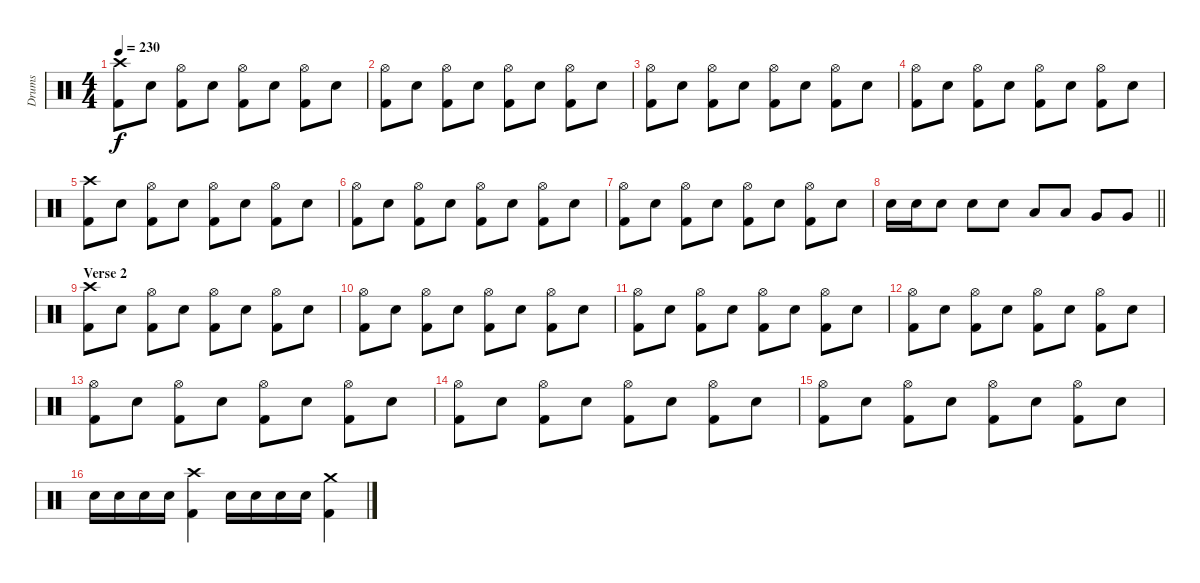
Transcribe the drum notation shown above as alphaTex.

\track ("Drums" "Drums") {instrument percussion}
\staff {score}
\articulation defaults
\ts (4 4)
\tempo 230
\clef neutral
\ks c
("Crash high (hit)" "Kick (hit) 2").8{dy f} "Electric Snare (hit)".8 ("Hi-Hat (open)" "Kick (hit) 2").8 "Electric Snare (hit)".8 ("Hi-Hat (open)" "Kick (hit) 2").8 "Electric Snare (hit)".8 ("Hi-Hat (open)" "Kick (hit) 2").8 "Electric Snare (hit)".8 |
("Hi-Hat (open)" "Kick (hit) 2").8 "Electric Snare (hit)".8 ("Hi-Hat (open)" "Kick (hit) 2").8 "Electric Snare (hit)".8 ("Hi-Hat (open)" "Kick (hit) 2").8 "Electric Snare (hit)".8 ("Hi-Hat (open)" "Kick (hit) 2").8 "Electric Snare (hit)".8 |
("Hi-Hat (open)" "Kick (hit) 2").8 "Electric Snare (hit)".8 ("Hi-Hat (open)" "Kick (hit) 2").8 "Electric Snare (hit)".8 ("Hi-Hat (open)" "Kick (hit) 2").8 "Electric Snare (hit)".8 ("Hi-Hat (open)" "Kick (hit) 2").8 "Electric Snare (hit)".8 |
("Hi-Hat (open)" "Kick (hit) 2").8 "Electric Snare (hit)".8 ("Hi-Hat (open)" "Kick (hit) 2").8 "Electric Snare (hit)".8 ("Hi-Hat (open)" "Kick (hit) 2").8 "Electric Snare (hit)".8 ("Hi-Hat (open)" "Kick (hit) 2").8 "Electric Snare (hit)".8 |
("Crash high (hit)" "Kick (hit) 2").8 "Electric Snare (hit)".8 ("Hi-Hat (open)" "Kick (hit) 2").8 "Electric Snare (hit)".8 ("Hi-Hat (open)" "Kick (hit) 2").8 "Electric Snare (hit)".8 ("Hi-Hat (open)" "Kick (hit) 2").8 "Electric Snare (hit)".8 |
("Hi-Hat (open)" "Kick (hit) 2").8 "Electric Snare (hit)".8 ("Hi-Hat (open)" "Kick (hit) 2").8 "Electric Snare (hit)".8 ("Hi-Hat (open)" "Kick (hit) 2").8 "Electric Snare (hit)".8 ("Hi-Hat (open)" "Kick (hit) 2").8 "Electric Snare (hit)".8 |
("Hi-Hat (open)" "Kick (hit) 2").8 "Electric Snare (hit)".8 ("Hi-Hat (open)" "Kick (hit) 2").8 "Electric Snare (hit)".8 ("Hi-Hat (open)" "Kick (hit) 2").8 "Electric Snare (hit)".8 ("Hi-Hat (open)" "Kick (hit) 2").8 "Electric Snare (hit)".8 |
\barLineRight lightlight "Electric Snare (hit)".16 "Electric Snare (hit)".16 "Electric Snare (hit)".8 "Electric Snare (hit)".8 "Electric Snare (hit)".8 "Low Tom (hit)".8 "Low Tom (hit)".8 "Very Low Tom (hit)".8 "Very Low Tom (hit)".8
|
\section ("" "Verse 2")
("Crash high (hit)" "Kick (hit) 2").8 "Electric Snare (hit)".8 ("Hi-Hat (open)" "Kick (hit) 2").8 "Electric Snare (hit)".8 ("Hi-Hat (open)" "Kick (hit) 2").8 "Electric Snare (hit)".8 ("Hi-Hat (open)" "Kick (hit) 2").8 "Electric Snare (hit)".8 |
("Hi-Hat (open)" "Kick (hit) 2").8 "Electric Snare (hit)".8 ("Hi-Hat (open)" "Kick (hit) 2").8 "Electric Snare (hit)".8 ("Hi-Hat (open)" "Kick (hit) 2").8 "Electric Snare (hit)".8 ("Hi-Hat (open)" "Kick (hit) 2").8 "Electric Snare (hit)".8 |
("Hi-Hat (open)" "Kick (hit) 2").8 "Electric Snare (hit)".8 ("Hi-Hat (open)" "Kick (hit) 2").8 "Electric Snare (hit)".8 ("Hi-Hat (open)" "Kick (hit) 2").8 "Electric Snare (hit)".8 ("Hi-Hat (open)" "Kick (hit) 2").8 "Electric Snare (hit)".8 |
("Hi-Hat (open)" "Kick (hit) 2").8 "Electric Snare (hit)".8 ("Hi-Hat (open)" "Kick (hit) 2").8 "Electric Snare (hit)".8 ("Hi-Hat (open)" "Kick (hit) 2").8 "Electric Snare (hit)".8 ("Hi-Hat (open)" "Kick (hit) 2").8 "Electric Snare (hit)".8 |
("Hi-Hat (open)" "Kick (hit) 2").8 "Electric Snare (hit)".8 ("Hi-Hat (open)" "Kick (hit) 2").8 "Electric Snare (hit)".8 ("Hi-Hat (open)" "Kick (hit) 2").8 "Electric Snare (hit)".8 ("Hi-Hat (open)" "Kick (hit) 2").8 "Electric Snare (hit)".8 |
("Hi-Hat (open)" "Kick (hit) 2").8 "Electric Snare (hit)".8 ("Hi-Hat (open)" "Kick (hit) 2").8 "Electric Snare (hit)".8 ("Hi-Hat (open)" "Kick (hit) 2").8 "Electric Snare (hit)".8 ("Hi-Hat (open)" "Kick (hit) 2").8 "Electric Snare (hit)".8 |
("Hi-Hat (open)" "Kick (hit) 2").8 "Electric Snare (hit)".8 ("Hi-Hat (open)" "Kick (hit) 2").8 "Electric Snare (hit)".8 ("Hi-Hat (open)" "Kick (hit) 2").8 "Electric Snare (hit)".8 ("Hi-Hat (open)" "Kick (hit) 2").8 "Electric Snare (hit)".8 |
"Electric Snare (hit)".16 "Electric Snare (hit)".16 "Electric Snare (hit)".16 "Electric Snare (hit)".16 ("Crash high (hit)" "Kick (hit) 2").4 "Electric Snare (hit)".16 "Electric Snare (hit)".16 "Electric Snare (hit)".16 "Electric Snare (hit)".16 ("Crash medium (hit)" "Kick (hit) 2").4
